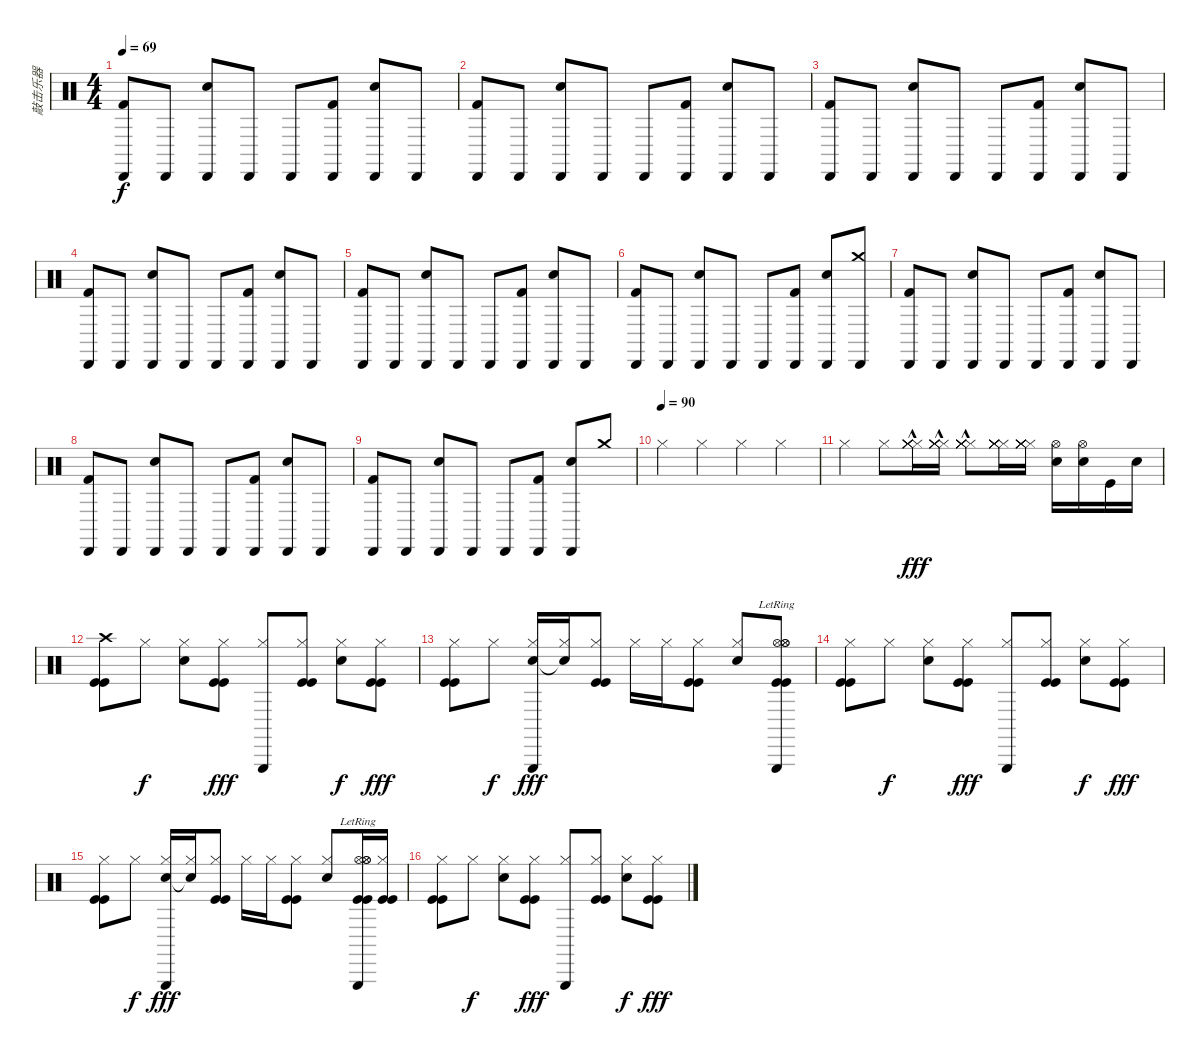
\track ("敲击乐器" "敲击乐器") {instrument percussion}
\staff {score}
\articulation defaults
\ts (4 4)
\tempo 69
\clef neutral
\ks c
("Cabasa (hit)" "Kick (hit) 2").8{dy f} "Cabasa (hit)".8 ("Cabasa (hit)" "Electric Snare (hit)").8 "Cabasa (hit)".8 "Cabasa (hit)".8 ("Cabasa (hit)" "Kick (hit) 2").8 ("Cabasa (hit)" "Electric Snare (hit)").8 "Cabasa (hit)".8 |
("Cabasa (hit)" "Kick (hit) 2").8 "Cabasa (hit)".8 ("Cabasa (hit)" "Electric Snare (hit)").8 "Cabasa (hit)".8 "Cabasa (hit)".8 ("Cabasa (hit)" "Kick (hit) 2").8 ("Cabasa (hit)" "Electric Snare (hit)").8 "Cabasa (hit)".8 |
("Cabasa (hit)" "Kick (hit) 2").8 "Cabasa (hit)".8 ("Cabasa (hit)" "Electric Snare (hit)").8 "Cabasa (hit)".8 "Cabasa (hit)".8 ("Cabasa (hit)" "Kick (hit) 2").8 ("Cabasa (hit)" "Electric Snare (hit)").8 "Cabasa (hit)".8 |
("Cabasa (hit)" "Kick (hit) 2").8 "Cabasa (hit)".8 ("Cabasa (hit)" "Electric Snare (hit)").8 "Cabasa (hit)".8 "Cabasa (hit)".8 ("Cabasa (hit)" "Kick (hit) 2").8 ("Cabasa (hit)" "Electric Snare (hit)").8 "Cabasa (hit)".8 |
("Cabasa (hit)" "Kick (hit) 2").8 "Cabasa (hit)".8 ("Cabasa (hit)" "Electric Snare (hit)").8 "Cabasa (hit)".8 "Cabasa (hit)".8 ("Cabasa (hit)" "Kick (hit) 2").8 ("Cabasa (hit)" "Electric Snare (hit)").8 "Cabasa (hit)".8 |
("Cabasa (hit)" "Kick (hit) 2").8 "Cabasa (hit)".8 ("Cabasa (hit)" "Electric Snare (hit)").8 "Cabasa (hit)".8 "Cabasa (hit)".8 ("Cabasa (hit)" "Kick (hit) 2").8 ("Cabasa (hit)" "Electric Snare (hit)").8 ("Cabasa (hit)" "Crash medium (hit)").8 |
("Cabasa (hit)" "Kick (hit) 2").8 "Cabasa (hit)".8 ("Cabasa (hit)" "Electric Snare (hit)").8 "Cabasa (hit)".8 "Cabasa (hit)".8 ("Cabasa (hit)" "Kick (hit) 2").8 ("Cabasa (hit)" "Electric Snare (hit)").8 "Cabasa (hit)".8 |
("Cabasa (hit)" "Kick (hit) 2").8 "Cabasa (hit)".8 ("Cabasa (hit)" "Electric Snare (hit)").8 "Cabasa (hit)".8 "Cabasa (hit)".8 ("Cabasa (hit)" "Kick (hit) 2").8 ("Cabasa (hit)" "Electric Snare (hit)").8 "Cabasa (hit)".8 |
("Cabasa (hit)" "Kick (hit) 2").8 "Cabasa (hit)".8 ("Cabasa (hit)" "Electric Snare (hit)").8 "Cabasa (hit)".8 "Cabasa (hit)".8 ("Cabasa (hit)" "Kick (hit) 2").8 ("Cabasa (hit)" "Electric Snare (hit)").8 "Crash medium (hit)".8 |
\tempo (90)
"Hi-Hat (closed)".4 "Hi-Hat (closed)".4 "Hi-Hat (closed)".4 "Hi-Hat (closed)".4 |
"Hi-Hat (closed)".4 "Hi-Hat (closed)".8 ("Hi-Hat (closed)"{hac} "Hi-Hat (closed)" "Hi-Hat (closed)" "Hi-Hat (closed)" "Hi-Hat (closed)" "Hi-Hat (closed)").16{dy fff} ("Hi-Hat (closed)"{hac} "Hi-Hat (closed)" "Hi-Hat (closed)" "Hi-Hat (closed)" "Hi-Hat (closed)" "Hi-Hat (closed)").16 ("Hi-Hat (closed)" "Hi-Hat (closed)"{hac} "Hi-Hat (closed)" "Hi-Hat (closed)" "Hi-Hat (closed)" "Hi-Hat (closed)").8 ("Hi-Hat (closed)" "Hi-Hat (closed)" "Hi-Hat (closed)" "Hi-Hat (closed)" "Hi-Hat (closed)" "Hi-Hat (closed)").16 ("Hi-Hat (closed)" "Hi-Hat (closed)" "Hi-Hat (closed)" "Hi-Hat (closed)" "Hi-Hat (closed)" "Hi-Hat (closed)").16 ("Hi-Hat (open)" "Electric Snare (hit)").16 ("Hi-Hat (open)" "Electric Snare (hit)").16 "Kick (hit)".16 "Electric Snare (hit)".16 |
("Crash high (hit)" "Kick (hit)" "Kick (hit)").8 "Hi-Hat (closed)".8{dy f} ("Hi-Hat (closed)" "Electric Snare (hit)").8 ("Hi-Hat (closed)" "Kick (hit)" "Kick (hit)").8{dy fff} ("Hi-Hat (closed)" "Triangle (hit)").8 ("Hi-Hat (closed)" "Kick (hit)" "Kick (hit)").8 ("Hi-Hat (closed)" "Electric Snare (hit)").8{dy f} ("Hi-Hat (closed)" "Kick (hit)" "Kick (hit)").8{dy fff} |
("Hi-Hat (closed)" "Kick (hit)" "Kick (hit)").8 "Hi-Hat (closed)".8{dy f} ("Hi-Hat (closed)" "Electric Snare (hit)" "Triangle (hit)").16{dy fff} ("Hi-Hat (closed)" "Snare (hit)"{t}).16 ("Hi-Hat (closed)" "Kick (hit)" "Kick (hit)").8 "Hi-Hat (closed)".16 "Hi-Hat (closed)".16 ("Hi-Hat (closed)" "Kick (hit)" "Kick (hit)").8 ("Hi-Hat (closed)" "Electric Snare (hit)").8 ("Hi-Hat (open)" "Hi-Hat (open)" "Hi-Hat (open)" "Triangle (hit)"{lr} "Kick (hit)" "Kick (hit)").8 |
("Hi-Hat (closed)" "Kick (hit)" "Kick (hit)").8 "Hi-Hat (closed)".8{dy f} ("Hi-Hat (closed)" "Electric Snare (hit)").8 ("Hi-Hat (closed)" "Kick (hit)" "Kick (hit)").8{dy fff} ("Hi-Hat (closed)" "Triangle (hit)").8 ("Hi-Hat (closed)" "Kick (hit)" "Kick (hit)").8 ("Hi-Hat (closed)" "Electric Snare (hit)").8{dy f} ("Hi-Hat (closed)" "Kick (hit)" "Kick (hit)").8{dy fff} |
("Hi-Hat (closed)" "Kick (hit)" "Kick (hit)").8 "Hi-Hat (closed)".8{dy f} ("Hi-Hat (closed)" "Electric Snare (hit)" "Triangle (hit)").16{dy fff} ("Hi-Hat (closed)" "Snare (hit)"{t}).16 ("Hi-Hat (closed)" "Kick (hit)" "Kick (hit)").8 "Hi-Hat (closed)".16 "Hi-Hat (closed)".16 ("Hi-Hat (closed)" "Kick (hit)" "Kick (hit)").8 ("Hi-Hat (closed)" "Electric Snare (hit)").8 ("Hi-Hat (open)" "Hi-Hat (open)" "Hi-Hat (open)" "Triangle (hit)"{lr} "Kick (hit)" "Kick (hit)").16 ("Hi-Hat (closed)" "Kick (hit)" "Kick (hit)").16 |
("Hi-Hat (closed)" "Kick (hit)" "Kick (hit)").8 "Hi-Hat (closed)".8{dy f} ("Hi-Hat (closed)" "Electric Snare (hit)").8 ("Hi-Hat (closed)" "Kick (hit)" "Kick (hit)").8{dy fff} ("Hi-Hat (closed)" "Triangle (hit)").8 ("Hi-Hat (closed)" "Kick (hit)" "Kick (hit)").8 ("Hi-Hat (closed)" "Electric Snare (hit)").8{dy f} ("Hi-Hat (closed)" "Kick (hit)" "Kick (hit)").8{dy fff}
